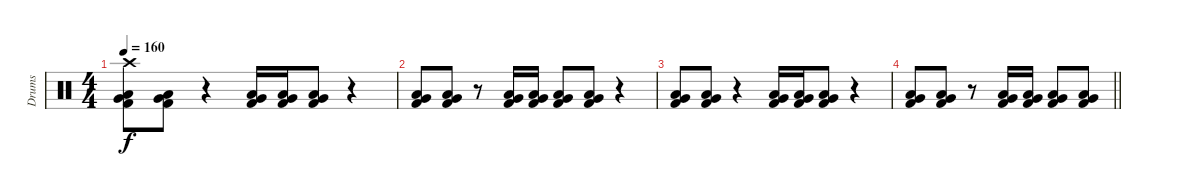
\track ("Drums" "Drums") {instrument percussion}
\staff {score}
\articulation defaults
\ts (4 4)
\tempo 160
\clef neutral
\ks c
("Crash high (hit)" "Very Low Tom (hit)" "Low Floor Tom (hit)" "Kick (hit) 2").8{dy f} ("Very Low Tom (hit)" "Low Floor Tom (hit)" "Kick (hit) 2").8 r.4 ("Very Low Tom (hit)" "Low Floor Tom (hit)" "Kick (hit) 2").16 ("Very Low Tom (hit)" "Low Floor Tom (hit)" "Kick (hit) 2").16 ("Very Low Tom (hit)" "Low Floor Tom (hit)" "Kick (hit) 2").8 r.4 |
("Very Low Tom (hit)" "Low Floor Tom (hit)" "Kick (hit) 2").8 ("Very Low Tom (hit)" "Low Floor Tom (hit)" "Kick (hit) 2").8 r.8 ("Very Low Tom (hit)" "Low Floor Tom (hit)" "Kick (hit) 2").16 ("Very Low Tom (hit)" "Low Floor Tom (hit)" "Kick (hit) 2").16 ("Very Low Tom (hit)" "Low Floor Tom (hit)" "Kick (hit) 2").8 ("Very Low Tom (hit)" "Low Floor Tom (hit)" "Kick (hit) 2").8 r.4 |
("Very Low Tom (hit)" "Low Floor Tom (hit)" "Kick (hit) 2").8 ("Very Low Tom (hit)" "Low Floor Tom (hit)" "Kick (hit) 2").8 r.4 ("Very Low Tom (hit)" "Low Floor Tom (hit)" "Kick (hit) 2").16 ("Very Low Tom (hit)" "Low Floor Tom (hit)" "Kick (hit) 2").16 ("Very Low Tom (hit)" "Low Floor Tom (hit)" "Kick (hit) 2").8 r.4 |
\barLineRight lightlight
("Very Low Tom (hit)" "Low Floor Tom (hit)" "Kick (hit) 2").8 ("Very Low Tom (hit)" "Low Floor Tom (hit)" "Kick (hit) 2").8 r.8 ("Very Low Tom (hit)" "Low Floor Tom (hit)" "Kick (hit) 2").16 ("Very Low Tom (hit)" "Low Floor Tom (hit)" "Kick (hit) 2").16 ("Very Low Tom (hit)" "Low Floor Tom (hit)" "Kick (hit) 2").8 ("Very Low Tom (hit)" "Low Floor Tom (hit)" "Kick (hit) 2").8
